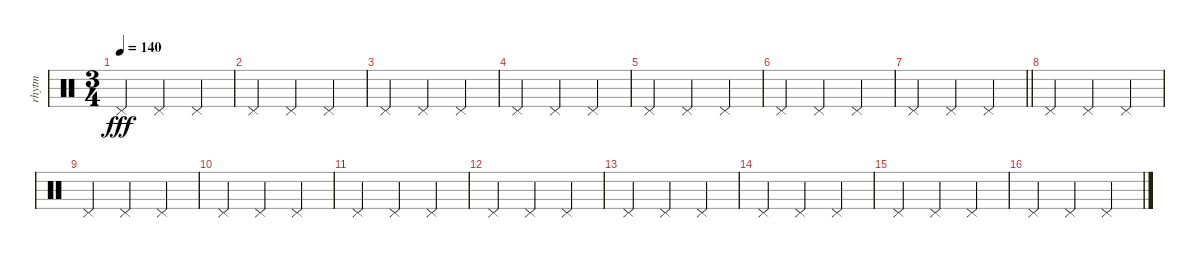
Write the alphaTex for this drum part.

\track ("rhytm" "rhytm") {instrument percussion}
\staff {score}
\articulation defaults
\ts (3 4)
\tempo 140
\clef neutral
\ks c "Pedal Hi-Hat (hit)".4{dy fff} "Pedal Hi-Hat (hit)".4 "Pedal Hi-Hat (hit)".4
|
"Pedal Hi-Hat (hit)".4 "Pedal Hi-Hat (hit)".4 "Pedal Hi-Hat (hit)".4 |
"Pedal Hi-Hat (hit)".4 "Pedal Hi-Hat (hit)".4 "Pedal Hi-Hat (hit)".4 |
"Pedal Hi-Hat (hit)".4 "Pedal Hi-Hat (hit)".4 "Pedal Hi-Hat (hit)".4 |
"Pedal Hi-Hat (hit)".4 "Pedal Hi-Hat (hit)".4 "Pedal Hi-Hat (hit)".4 |
"Pedal Hi-Hat (hit)".4 "Pedal Hi-Hat (hit)".4 "Pedal Hi-Hat (hit)".4 |
\barLineRight lightlight "Pedal Hi-Hat (hit)".4 "Pedal Hi-Hat (hit)".4 "Pedal Hi-Hat (hit)".4
|
"Pedal Hi-Hat (hit)".4 "Pedal Hi-Hat (hit)".4 "Pedal Hi-Hat (hit)".4 |
"Pedal Hi-Hat (hit)".4 "Pedal Hi-Hat (hit)".4 "Pedal Hi-Hat (hit)".4 |
"Pedal Hi-Hat (hit)".4 "Pedal Hi-Hat (hit)".4 "Pedal Hi-Hat (hit)".4 |
"Pedal Hi-Hat (hit)".4 "Pedal Hi-Hat (hit)".4 "Pedal Hi-Hat (hit)".4 |
"Pedal Hi-Hat (hit)".4 "Pedal Hi-Hat (hit)".4 "Pedal Hi-Hat (hit)".4 |
"Pedal Hi-Hat (hit)".4 "Pedal Hi-Hat (hit)".4 "Pedal Hi-Hat (hit)".4 |
"Pedal Hi-Hat (hit)".4 "Pedal Hi-Hat (hit)".4 "Pedal Hi-Hat (hit)".4 |
"Pedal Hi-Hat (hit)".4 "Pedal Hi-Hat (hit)".4 "Pedal Hi-Hat (hit)".4 |
"Pedal Hi-Hat (hit)".4 "Pedal Hi-Hat (hit)".4 "Pedal Hi-Hat (hit)".4
